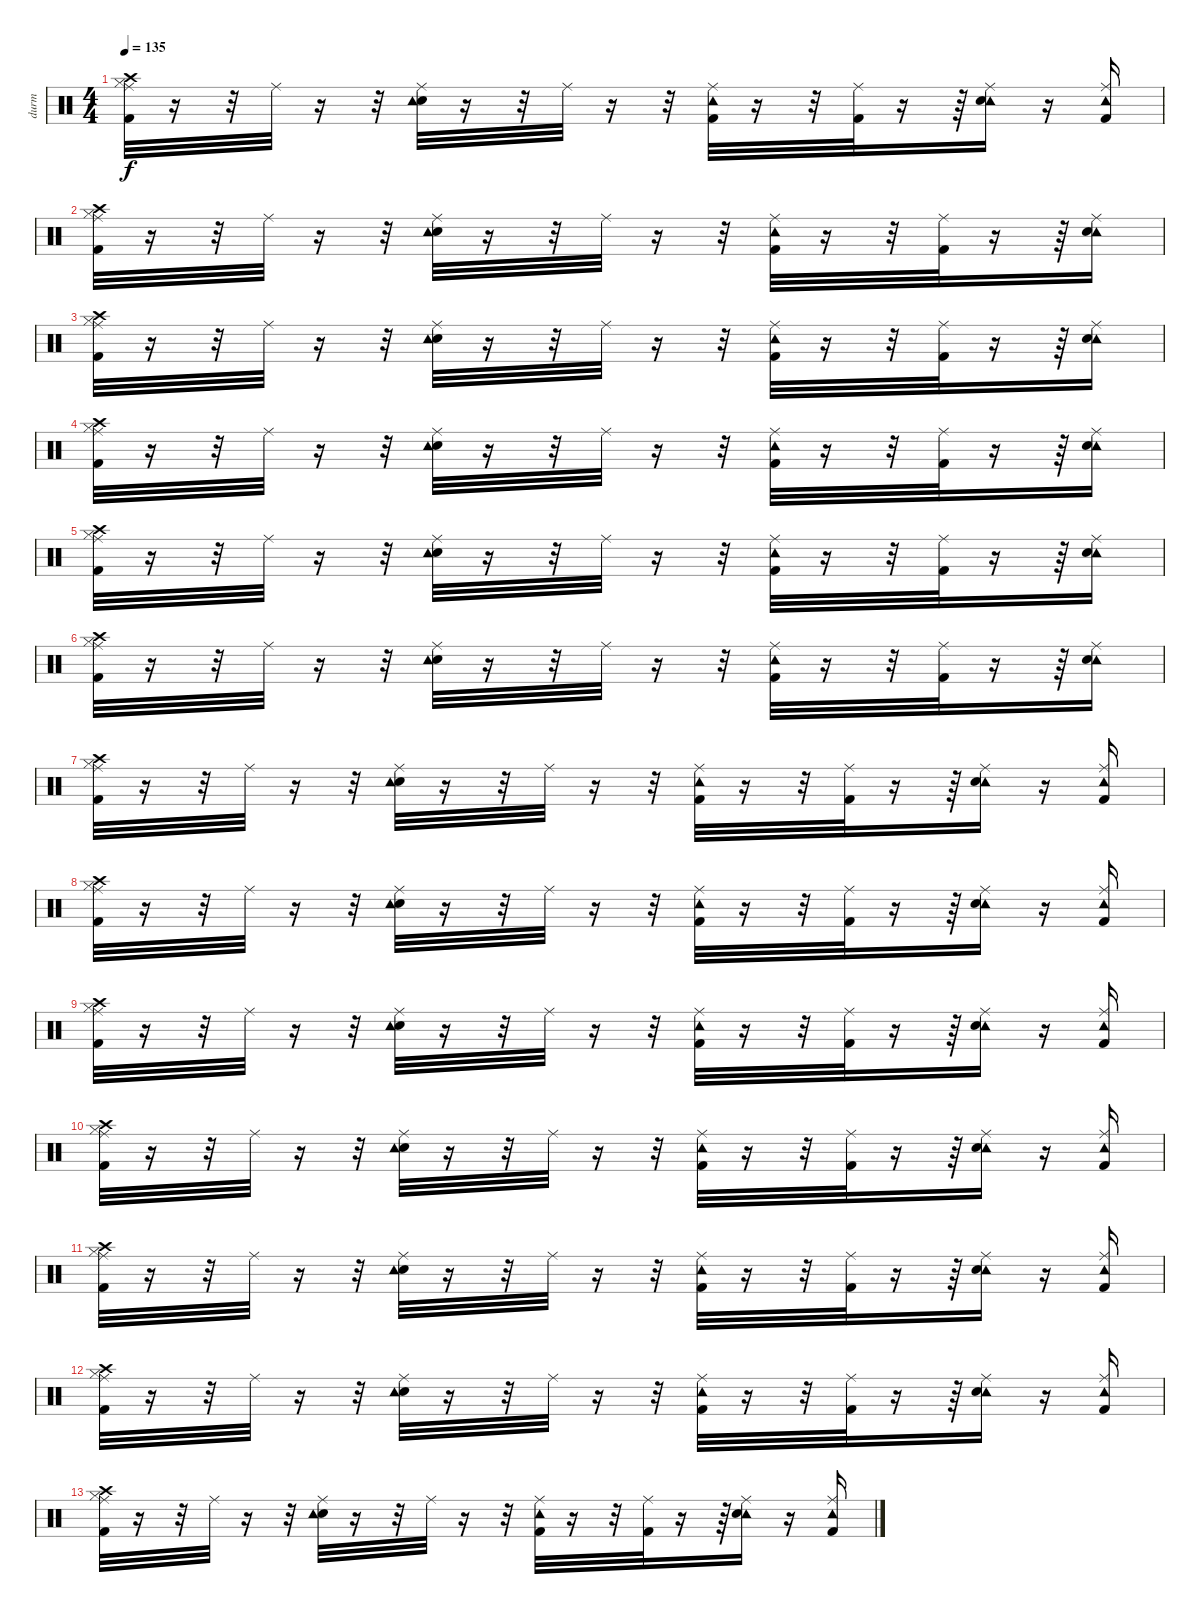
\track ("durm" "durm") {instrument percussion}
\staff {score}
\articulation defaults
\ts (4 4)
\tempo 135
\clef neutral
\ks c
("Crash high (hit)" "Hi-Hat (closed)" "Kick (hit) 2" "Ride (middle)").32{dy f} r.16 r.32 "Ride (middle)".32 r.16 r.32 ("Electric Snare (hit)" "Ride (middle)" "Tambourine (hit)").32 r.16 r.32 "Ride (middle)".32 r.16 r.32 ("Kick (hit) 2" "Ride (middle)" "Tambourine (hit)").32 r.16 r.32 ("Kick (hit) 2" "Ride (middle)").32 r.16 r.64 ("Ride (middle)" "Tambourine (hit)" "Electric Snare (hit)").16 r.16 ("Ride (middle)" "Kick (hit) 2" "Tambourine (hit)").16 |
("Crash high (hit)" "Hi-Hat (closed)" "Kick (hit) 2" "Ride (middle)").32 r.16 r.32 "Ride (middle)".32 r.16 r.32 ("Electric Snare (hit)" "Ride (middle)" "Tambourine (hit)").32 r.16 r.32 "Ride (middle)".32 r.16 r.32 ("Kick (hit) 2" "Ride (middle)" "Tambourine (hit)").32 r.16 r.32 ("Kick (hit) 2" "Ride (middle)").32 r.16 r.64 ("Ride (middle)" "Tambourine (hit)" "Electric Snare (hit)").16 |
("Crash high (hit)" "Hi-Hat (closed)" "Kick (hit) 2" "Ride (middle)").32 r.16 r.32 "Ride (middle)".32 r.16 r.32 ("Electric Snare (hit)" "Ride (middle)" "Tambourine (hit)").32 r.16 r.32 "Ride (middle)".32 r.16 r.32 ("Kick (hit) 2" "Ride (middle)" "Tambourine (hit)").32 r.16 r.32 ("Kick (hit) 2" "Ride (middle)").32 r.16 r.64 ("Ride (middle)" "Tambourine (hit)" "Electric Snare (hit)").16 |
("Crash high (hit)" "Hi-Hat (closed)" "Kick (hit) 2" "Ride (middle)").32 r.16 r.32 "Ride (middle)".32 r.16 r.32 ("Electric Snare (hit)" "Ride (middle)" "Tambourine (hit)").32 r.16 r.32 "Ride (middle)".32 r.16 r.32 ("Kick (hit) 2" "Ride (middle)" "Tambourine (hit)").32 r.16 r.32 ("Kick (hit) 2" "Ride (middle)").32 r.16 r.64 ("Ride (middle)" "Tambourine (hit)" "Electric Snare (hit)").16 |
("Crash high (hit)" "Hi-Hat (closed)" "Kick (hit) 2" "Ride (middle)").32 r.16 r.32 "Ride (middle)".32 r.16 r.32 ("Electric Snare (hit)" "Ride (middle)" "Tambourine (hit)").32 r.16 r.32 "Ride (middle)".32 r.16 r.32 ("Kick (hit) 2" "Ride (middle)" "Tambourine (hit)").32 r.16 r.32 ("Kick (hit) 2" "Ride (middle)").32 r.16 r.64 ("Ride (middle)" "Tambourine (hit)" "Electric Snare (hit)").16 |
("Crash high (hit)" "Hi-Hat (closed)" "Kick (hit) 2" "Ride (middle)").32 r.16 r.32 "Ride (middle)".32 r.16 r.32 ("Electric Snare (hit)" "Ride (middle)" "Tambourine (hit)").32 r.16 r.32 "Ride (middle)".32 r.16 r.32 ("Kick (hit) 2" "Ride (middle)" "Tambourine (hit)").32 r.16 r.32 ("Kick (hit) 2" "Ride (middle)").32 r.16 r.64 ("Ride (middle)" "Tambourine (hit)" "Electric Snare (hit)").16 |
("Crash high (hit)" "Hi-Hat (closed)" "Kick (hit) 2" "Ride (middle)").32 r.16 r.32 "Ride (middle)".32 r.16 r.32 ("Electric Snare (hit)" "Ride (middle)" "Tambourine (hit)").32 r.16 r.32 "Ride (middle)".32 r.16 r.32 ("Kick (hit) 2" "Ride (middle)" "Tambourine (hit)").32 r.16 r.32 ("Kick (hit) 2" "Ride (middle)").32 r.16 r.64 ("Ride (middle)" "Tambourine (hit)" "Electric Snare (hit)").16 r.16 ("Ride (middle)" "Kick (hit) 2" "Tambourine (hit)").16 |
("Crash high (hit)" "Hi-Hat (closed)" "Kick (hit) 2" "Ride (middle)").32 r.16 r.32 "Ride (middle)".32 r.16 r.32 ("Electric Snare (hit)" "Ride (middle)" "Tambourine (hit)").32 r.16 r.32 "Ride (middle)".32 r.16 r.32 ("Kick (hit) 2" "Ride (middle)" "Tambourine (hit)").32 r.16 r.32 ("Kick (hit) 2" "Ride (middle)").32 r.16 r.64 ("Ride (middle)" "Tambourine (hit)" "Electric Snare (hit)").16 r.16 ("Ride (middle)" "Kick (hit) 2" "Tambourine (hit)").16 |
("Crash high (hit)" "Hi-Hat (closed)" "Kick (hit) 2" "Ride (middle)").32 r.16 r.32 "Ride (middle)".32 r.16 r.32 ("Electric Snare (hit)" "Ride (middle)" "Tambourine (hit)").32 r.16 r.32 "Ride (middle)".32 r.16 r.32 ("Kick (hit) 2" "Ride (middle)" "Tambourine (hit)").32 r.16 r.32 ("Kick (hit) 2" "Ride (middle)").32 r.16 r.64 ("Ride (middle)" "Tambourine (hit)" "Electric Snare (hit)").16 r.16 ("Ride (middle)" "Kick (hit) 2" "Tambourine (hit)").16 |
("Crash high (hit)" "Hi-Hat (closed)" "Kick (hit) 2" "Ride (middle)").32 r.16 r.32 "Ride (middle)".32 r.16 r.32 ("Electric Snare (hit)" "Ride (middle)" "Tambourine (hit)").32 r.16 r.32 "Ride (middle)".32 r.16 r.32 ("Kick (hit) 2" "Ride (middle)" "Tambourine (hit)").32 r.16 r.32 ("Kick (hit) 2" "Ride (middle)").32 r.16 r.64 ("Ride (middle)" "Tambourine (hit)" "Electric Snare (hit)").16 r.16 ("Ride (middle)" "Kick (hit) 2" "Tambourine (hit)").16 |
("Crash high (hit)" "Hi-Hat (closed)" "Kick (hit) 2" "Ride (middle)").32 r.16 r.32 "Ride (middle)".32 r.16 r.32 ("Electric Snare (hit)" "Ride (middle)" "Tambourine (hit)").32 r.16 r.32 "Ride (middle)".32 r.16 r.32 ("Kick (hit) 2" "Ride (middle)" "Tambourine (hit)").32 r.16 r.32 ("Kick (hit) 2" "Ride (middle)").32 r.16 r.64 ("Ride (middle)" "Tambourine (hit)" "Electric Snare (hit)").16 r.16 ("Ride (middle)" "Kick (hit) 2" "Tambourine (hit)").16 |
("Crash high (hit)" "Hi-Hat (closed)" "Kick (hit) 2" "Ride (middle)").32 r.16 r.32 "Ride (middle)".32 r.16 r.32 ("Electric Snare (hit)" "Ride (middle)" "Tambourine (hit)").32 r.16 r.32 "Ride (middle)".32 r.16 r.32 ("Kick (hit) 2" "Ride (middle)" "Tambourine (hit)").32 r.16 r.32 ("Kick (hit) 2" "Ride (middle)").32 r.16 r.64 ("Ride (middle)" "Tambourine (hit)" "Electric Snare (hit)").16 r.16 ("Ride (middle)" "Kick (hit) 2" "Tambourine (hit)").16 |
("Crash high (hit)" "Hi-Hat (closed)" "Kick (hit) 2" "Ride (middle)").32 r.16 r.32 "Ride (middle)".32 r.16 r.32 ("Electric Snare (hit)" "Ride (middle)" "Tambourine (hit)").32 r.16 r.32 "Ride (middle)".32 r.16 r.32 ("Kick (hit) 2" "Ride (middle)" "Tambourine (hit)").32 r.16 r.32 ("Kick (hit) 2" "Ride (middle)").32 r.16 r.64 ("Ride (middle)" "Tambourine (hit)" "Electric Snare (hit)").16 r.16 ("Ride (middle)" "Kick (hit) 2" "Tambourine (hit)").16
